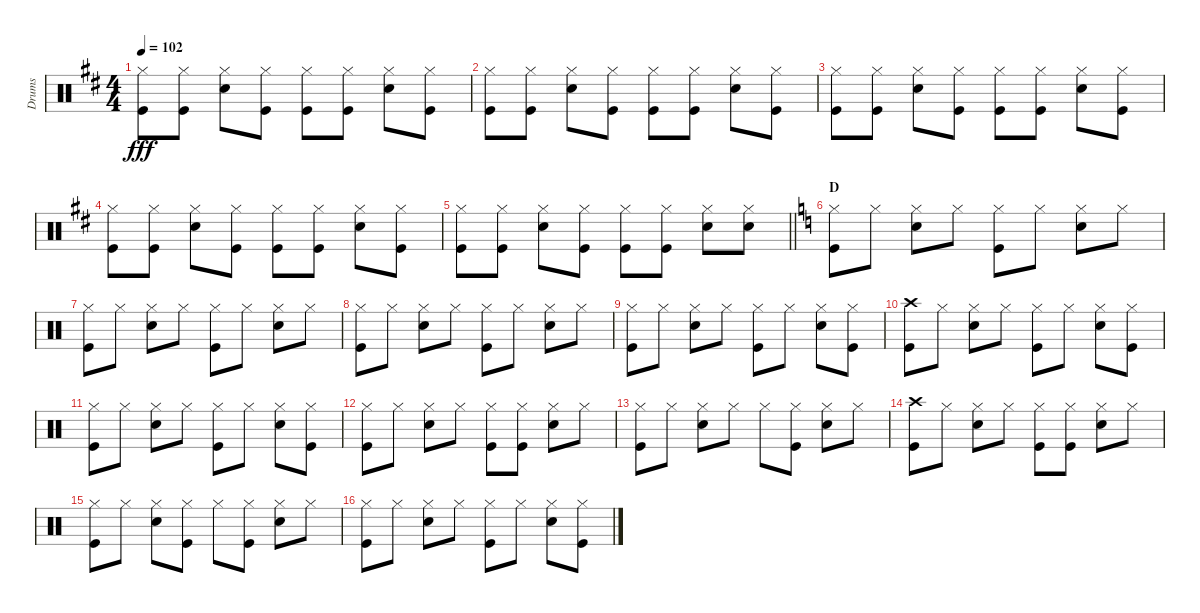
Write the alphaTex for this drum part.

\track ("Drums" "Drums") {instrument percussion}
\staff {score}
\articulation defaults
\ts (4 4)
\tempo 102
\clef neutral
\ks d
("Hi-Hat (closed)" "Kick (hit)").8{dy fff} ("Hi-Hat (closed)" "Kick (hit)").8 ("Hi-Hat (closed)" "Snare (hit) 2").8 ("Hi-Hat (closed)" "Kick (hit)").8 ("Hi-Hat (closed)" "Kick (hit)").8 ("Hi-Hat (closed)" "Kick (hit)").8 ("Hi-Hat (closed)" "Snare (hit) 2").8 ("Hi-Hat (closed)" "Kick (hit)").8 |
("Hi-Hat (closed)" "Kick (hit)").8 ("Hi-Hat (closed)" "Kick (hit)").8 ("Hi-Hat (closed)" "Snare (hit) 2").8 ("Hi-Hat (closed)" "Kick (hit)").8 ("Hi-Hat (closed)" "Kick (hit)").8 ("Hi-Hat (closed)" "Kick (hit)").8 ("Hi-Hat (closed)" "Snare (hit) 2").8 ("Hi-Hat (closed)" "Kick (hit)").8 |
("Hi-Hat (closed)" "Kick (hit)").8 ("Hi-Hat (closed)" "Kick (hit)").8 ("Hi-Hat (closed)" "Snare (hit) 2").8 ("Hi-Hat (closed)" "Kick (hit)").8 ("Hi-Hat (closed)" "Kick (hit)").8 ("Hi-Hat (closed)" "Kick (hit)").8 ("Hi-Hat (closed)" "Snare (hit) 2").8 ("Hi-Hat (closed)" "Kick (hit)").8 |
("Hi-Hat (closed)" "Kick (hit)").8 ("Hi-Hat (closed)" "Kick (hit)").8 ("Hi-Hat (closed)" "Snare (hit) 2").8 ("Hi-Hat (closed)" "Kick (hit)").8 ("Hi-Hat (closed)" "Kick (hit)").8 ("Hi-Hat (closed)" "Kick (hit)").8 ("Hi-Hat (closed)" "Snare (hit) 2").8 ("Hi-Hat (closed)" "Kick (hit)").8 |
\barLineRight lightlight
("Hi-Hat (closed)" "Kick (hit)").8 ("Hi-Hat (closed)" "Kick (hit)").8 ("Hi-Hat (closed)" "Snare (hit) 2").8 ("Hi-Hat (closed)" "Kick (hit)").8 ("Hi-Hat (closed)" "Kick (hit)").8 ("Hi-Hat (closed)" "Kick (hit)").8 ("Hi-Hat (closed)" "Snare (hit) 2").8 ("Hi-Hat (closed)" "Snare (hit) 2").8 |
\section ("" "D")
\ks c
("Hi-Hat (closed)" "Kick (hit)").8 "Hi-Hat (closed)".8 ("Hi-Hat (closed)" "Snare (hit) 2").8 "Hi-Hat (closed)".8 ("Hi-Hat (closed)" "Kick (hit)").8 "Hi-Hat (closed)".8 ("Hi-Hat (closed)" "Snare (hit) 2").8 "Hi-Hat (closed)".8 |
("Hi-Hat (closed)" "Kick (hit)").8 "Hi-Hat (closed)".8 ("Hi-Hat (closed)" "Snare (hit) 2").8 "Hi-Hat (closed)".8 ("Hi-Hat (closed)" "Kick (hit)").8 "Hi-Hat (closed)".8 ("Hi-Hat (closed)" "Snare (hit) 2").8 "Hi-Hat (closed)".8 |
("Hi-Hat (closed)" "Kick (hit)").8 "Hi-Hat (closed)".8 ("Hi-Hat (closed)" "Snare (hit) 2").8 "Hi-Hat (closed)".8 ("Hi-Hat (closed)" "Kick (hit)").8 "Hi-Hat (closed)".8 ("Hi-Hat (closed)" "Snare (hit) 2").8 "Hi-Hat (closed)".8 |
("Hi-Hat (closed)" "Kick (hit)").8 "Hi-Hat (closed)".8 ("Hi-Hat (closed)" "Snare (hit) 2").8 "Hi-Hat (closed)".8 ("Hi-Hat (closed)" "Kick (hit)").8 "Hi-Hat (closed)".8 ("Hi-Hat (closed)" "Snare (hit) 2").8 ("Hi-Hat (closed)" "Kick (hit)").8 |
("Crash high (hit)" "Kick (hit)").8 "Hi-Hat (closed)".8 ("Hi-Hat (closed)" "Snare (hit) 2").8 "Hi-Hat (closed)".8 ("Hi-Hat (closed)" "Kick (hit)").8 "Hi-Hat (closed)".8 ("Hi-Hat (closed)" "Snare (hit) 2").8 ("Hi-Hat (closed)" "Kick (hit)").8 |
("Hi-Hat (closed)" "Kick (hit)").8 "Hi-Hat (closed)".8 ("Hi-Hat (closed)" "Snare (hit) 2").8 "Hi-Hat (closed)".8 ("Hi-Hat (closed)" "Kick (hit)").8 "Hi-Hat (closed)".8 ("Hi-Hat (closed)" "Snare (hit) 2").8 ("Hi-Hat (closed)" "Kick (hit)").8 |
("Hi-Hat (closed)" "Kick (hit)").8 "Hi-Hat (closed)".8 ("Hi-Hat (closed)" "Snare (hit) 2").8 "Hi-Hat (closed)".8 ("Hi-Hat (closed)" "Kick (hit)").8 ("Hi-Hat (closed)" "Kick (hit)").8 ("Hi-Hat (closed)" "Snare (hit) 2").8 "Hi-Hat (closed)".8 |
("Hi-Hat (closed)" "Kick (hit)").8 "Hi-Hat (closed)".8 ("Hi-Hat (closed)" "Snare (hit) 2").8 "Hi-Hat (closed)".8 "Hi-Hat (closed)".8 ("Hi-Hat (closed)" "Kick (hit)").8 ("Hi-Hat (closed)" "Snare (hit) 2").8 "Hi-Hat (closed)".8 |
("Crash high (hit)" "Kick (hit)").8 "Hi-Hat (closed)".8 ("Hi-Hat (closed)" "Snare (hit) 2").8 "Hi-Hat (closed)".8 ("Hi-Hat (closed)" "Kick (hit)").8 ("Hi-Hat (closed)" "Kick (hit)").8 ("Hi-Hat (closed)" "Snare (hit) 2").8 "Hi-Hat (closed)".8 |
("Hi-Hat (closed)" "Kick (hit)").8 "Hi-Hat (closed)".8 ("Hi-Hat (closed)" "Snare (hit) 2").8 ("Hi-Hat (closed)" "Kick (hit)").8 "Hi-Hat (closed)".8 ("Hi-Hat (closed)" "Kick (hit)").8 ("Hi-Hat (closed)" "Snare (hit) 2").8 "Hi-Hat (closed)".8 |
("Hi-Hat (closed)" "Kick (hit)").8 "Hi-Hat (closed)".8 ("Hi-Hat (closed)" "Snare (hit) 2").8 "Hi-Hat (closed)".8 ("Hi-Hat (closed)" "Kick (hit)").8 "Hi-Hat (closed)".8 ("Hi-Hat (closed)" "Snare (hit) 2").8 ("Hi-Hat (closed)" "Kick (hit)").8
